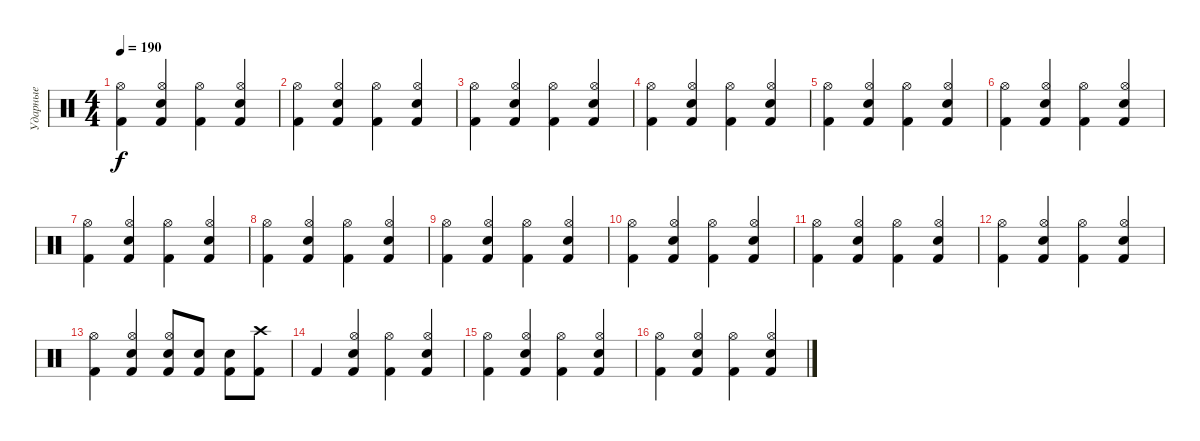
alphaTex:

\track ("Ударные" "Ударные") {instrument percussion}
\staff
\articulation defaults
\ts (4 4)
\tempo 190
\clef neutral
\ks c
("Kick (hit) 2" "Hi-Hat (open)").4{dy f} ("Kick (hit) 2" "Snare (hit) 2" "Hi-Hat (open)").4 ("Kick (hit) 2" "Hi-Hat (open)").4 ("Kick (hit) 2" "Snare (hit) 2" "Hi-Hat (open)").4 |
("Kick (hit) 2" "Hi-Hat (open)").4 ("Kick (hit) 2" "Snare (hit) 2" "Hi-Hat (open)").4 ("Kick (hit) 2" "Hi-Hat (open)").4 ("Kick (hit) 2" "Snare (hit) 2" "Hi-Hat (open)").4 |
("Kick (hit) 2" "Hi-Hat (open)").4 ("Kick (hit) 2" "Snare (hit) 2" "Hi-Hat (open)").4 ("Kick (hit) 2" "Hi-Hat (open)").4 ("Kick (hit) 2" "Snare (hit) 2" "Hi-Hat (open)").4 |
("Kick (hit) 2" "Hi-Hat (open)").4 ("Kick (hit) 2" "Snare (hit) 2" "Hi-Hat (open)").4 ("Kick (hit) 2" "Hi-Hat (open)").4 ("Kick (hit) 2" "Snare (hit) 2" "Hi-Hat (open)").4 |
("Kick (hit) 2" "Hi-Hat (open)").4 ("Kick (hit) 2" "Snare (hit) 2" "Hi-Hat (open)").4 ("Kick (hit) 2" "Hi-Hat (open)").4 ("Kick (hit) 2" "Snare (hit) 2" "Hi-Hat (open)").4 |
("Kick (hit) 2" "Hi-Hat (open)").4 ("Kick (hit) 2" "Snare (hit) 2" "Hi-Hat (open)").4 ("Kick (hit) 2" "Hi-Hat (open)").4 ("Kick (hit) 2" "Snare (hit) 2" "Hi-Hat (open)").4 |
("Kick (hit) 2" "Hi-Hat (open)").4 ("Kick (hit) 2" "Snare (hit) 2" "Hi-Hat (open)").4 ("Kick (hit) 2" "Hi-Hat (open)").4 ("Kick (hit) 2" "Snare (hit) 2" "Hi-Hat (open)").4 |
("Kick (hit) 2" "Hi-Hat (open)").4 ("Kick (hit) 2" "Snare (hit) 2" "Hi-Hat (open)").4 ("Kick (hit) 2" "Hi-Hat (open)").4 ("Kick (hit) 2" "Snare (hit) 2" "Hi-Hat (open)").4 |
("Kick (hit) 2" "Hi-Hat (open)").4 ("Kick (hit) 2" "Snare (hit) 2" "Hi-Hat (open)").4 ("Kick (hit) 2" "Hi-Hat (open)").4 ("Kick (hit) 2" "Snare (hit) 2" "Hi-Hat (open)").4 |
("Kick (hit) 2" "Hi-Hat (open)").4 ("Kick (hit) 2" "Snare (hit) 2" "Hi-Hat (open)").4 ("Kick (hit) 2" "Hi-Hat (open)").4 ("Kick (hit) 2" "Snare (hit) 2" "Hi-Hat (open)").4 |
("Kick (hit) 2" "Hi-Hat (open)").4 ("Kick (hit) 2" "Snare (hit) 2" "Hi-Hat (open)").4 ("Kick (hit) 2" "Hi-Hat (open)").4 ("Kick (hit) 2" "Snare (hit) 2" "Hi-Hat (open)").4 |
("Kick (hit) 2" "Hi-Hat (open)").4 ("Kick (hit) 2" "Snare (hit) 2" "Hi-Hat (open)").4 ("Kick (hit) 2" "Hi-Hat (open)").4 ("Kick (hit) 2" "Snare (hit) 2" "Hi-Hat (open)").4 |
("Kick (hit) 2" "Hi-Hat (open)").4 ("Kick (hit) 2" "Snare (hit) 2" "Hi-Hat (open)").4 ("Kick (hit) 2" "Snare (hit) 2" "Hi-Hat (open)").8 ("Kick (hit) 2" "Snare (hit) 2").8 ("Snare (hit) 2" "Kick (hit) 2").8 ("Kick (hit) 2" "Crash high (hit)").8 |
"Kick (hit) 2".4 ("Kick (hit) 2" "Snare (hit) 2" "Hi-Hat (open)").4 ("Kick (hit) 2" "Hi-Hat (open)").4 ("Kick (hit) 2" "Snare (hit) 2" "Hi-Hat (open)").4 |
("Kick (hit) 2" "Hi-Hat (open)").4 ("Kick (hit) 2" "Snare (hit) 2" "Hi-Hat (open)").4 ("Kick (hit) 2" "Hi-Hat (open)").4 ("Kick (hit) 2" "Snare (hit) 2" "Hi-Hat (open)").4 |
("Kick (hit) 2" "Hi-Hat (open)").4 ("Kick (hit) 2" "Snare (hit) 2" "Hi-Hat (open)").4 ("Kick (hit) 2" "Hi-Hat (open)").4 ("Kick (hit) 2" "Snare (hit) 2" "Hi-Hat (open)").4
